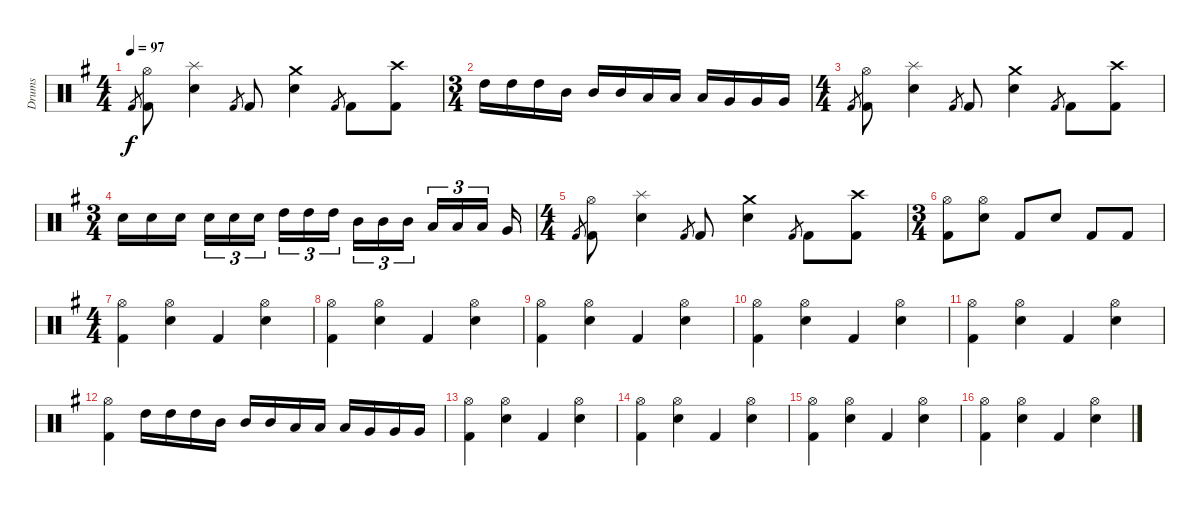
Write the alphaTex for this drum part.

\track ("Drums" "Drums") {instrument percussion}
\staff {score}
\articulation defaults
\ts (4 4)
\tempo 97
\clef neutral
\ks g "Kick (hit) 2".8{gr dy f}
("Hi-Hat (open)" "Kick (hit) 2").8 ("Splash (hit)" "Snare (hit) 2").4 "Kick (hit) 2".8{gr} "Kick (hit) 2".8 ("Crash medium (hit)" "Snare (hit) 2").4 "Kick (hit) 2".8{gr} "Kick (hit) 2".8 ("Crash high (hit)" "Kick (hit) 2").8 |
\ts (3 4)
"High Tom (hit)".16 "High Tom (hit)".16 "High Tom (hit)".16 "Mid Tom (hit)".16 "Mid Tom (hit)".16 "Mid Tom (hit)".16 "Low Tom (hit)".16 "Low Tom (hit)".16 "Low Tom (hit)".16 "Very Low Tom (hit)".16 "Very Low Tom (hit)".16 "Very Low Tom (hit)".16 |
\ts (4 4)
"Kick (hit) 2".8{gr} ("Hi-Hat (open)" "Kick (hit) 2").8 ("Splash (hit)" "Snare (hit) 2").4 "Kick (hit) 2".8{gr} "Kick (hit) 2".8 ("Crash medium (hit)" "Snare (hit) 2").4 "Kick (hit) 2".8{gr} "Kick (hit) 2".8 ("Crash high (hit)" "Kick (hit) 2").8 |
\ts (3 4)
"Snare (hit) 2".16 "Snare (hit) 2".16 "Snare (hit) 2".16 "Snare (hit) 2".16{tu (3 2)} "Snare (hit) 2".16{tu (3 2)} "Snare (hit) 2".16{tu (3 2)} "High Tom (hit)".16{tu (3 2)} "High Tom (hit)".16{tu (3 2)} "High Tom (hit)".16{tu (3 2)} "Mid Tom (hit)".16{tu (3 2)} "Mid Tom (hit)".16{tu (3 2)} "Mid Tom (hit)".16{tu (3 2)} "Low Tom (hit)".16{tu (3 2)} "Low Tom (hit)".16{tu (3 2)} "Low Tom (hit)".16{tu (3 2)} "Very Low Tom (hit)".16 |
\ts (4 4)
"Kick (hit) 2".8{gr} ("Hi-Hat (open)" "Kick (hit) 2").8 ("Splash (hit)" "Snare (hit) 2").4 "Kick (hit) 2".8{gr} "Kick (hit) 2".8 ("Crash medium (hit)" "Snare (hit) 2").4 "Kick (hit) 2".8{gr} "Kick (hit) 2".8 ("Crash high (hit)" "Kick (hit) 2").8 |
\ts (3 4)
("Hi-Hat (open)" "Kick (hit) 2").8 ("Hi-Hat (open)" "Snare (hit) 2").8 "Kick (hit) 2".8 "Snare (hit) 2".8 "Kick (hit) 2".8 "Kick (hit) 2".8 |
\ts (4 4)
("Hi-Hat (open)" "Kick (hit) 2").4 ("Hi-Hat (open)" "Snare (hit) 2").4 "Kick (hit) 2".4 ("Hi-Hat (open)" "Snare (hit) 2").4 |
("Hi-Hat (open)" "Kick (hit) 2").4 ("Hi-Hat (open)" "Snare (hit) 2").4 "Kick (hit) 2".4 ("Hi-Hat (open)" "Snare (hit) 2").4 |
("Hi-Hat (open)" "Kick (hit) 2").4 ("Hi-Hat (open)" "Snare (hit) 2").4 "Kick (hit) 2".4 ("Hi-Hat (open)" "Snare (hit) 2").4 |
("Hi-Hat (open)" "Kick (hit) 2").4 ("Hi-Hat (open)" "Snare (hit) 2").4 "Kick (hit) 2".4 ("Hi-Hat (open)" "Snare (hit) 2").4 |
("Hi-Hat (open)" "Kick (hit) 2").4 ("Hi-Hat (open)" "Snare (hit) 2").4 "Kick (hit) 2".4 ("Hi-Hat (open)" "Snare (hit) 2").4 |
("Hi-Hat (open)" "Kick (hit) 2").4 "High Tom (hit)".16 "High Tom (hit)".16 "High Tom (hit)".16 "Mid Tom (hit)".16 "Mid Tom (hit)".16 "Mid Tom (hit)".16 "Low Tom (hit)".16 "Low Tom (hit)".16 "Low Tom (hit)".16 "Very Low Tom (hit)".16 "Very Low Tom (hit)".16 "Very Low Tom (hit)".16 |
("Hi-Hat (open)" "Kick (hit) 2").4 ("Hi-Hat (open)" "Snare (hit) 2").4 "Kick (hit) 2".4 ("Hi-Hat (open)" "Snare (hit) 2").4 |
("Hi-Hat (open)" "Kick (hit) 2").4 ("Hi-Hat (open)" "Snare (hit) 2").4 "Kick (hit) 2".4 ("Hi-Hat (open)" "Snare (hit) 2").4 |
("Hi-Hat (open)" "Kick (hit) 2").4 ("Hi-Hat (open)" "Snare (hit) 2").4 "Kick (hit) 2".4 ("Hi-Hat (open)" "Snare (hit) 2").4 |
("Hi-Hat (open)" "Kick (hit) 2").4 ("Hi-Hat (open)" "Snare (hit) 2").4 "Kick (hit) 2".4 ("Hi-Hat (open)" "Snare (hit) 2").4
